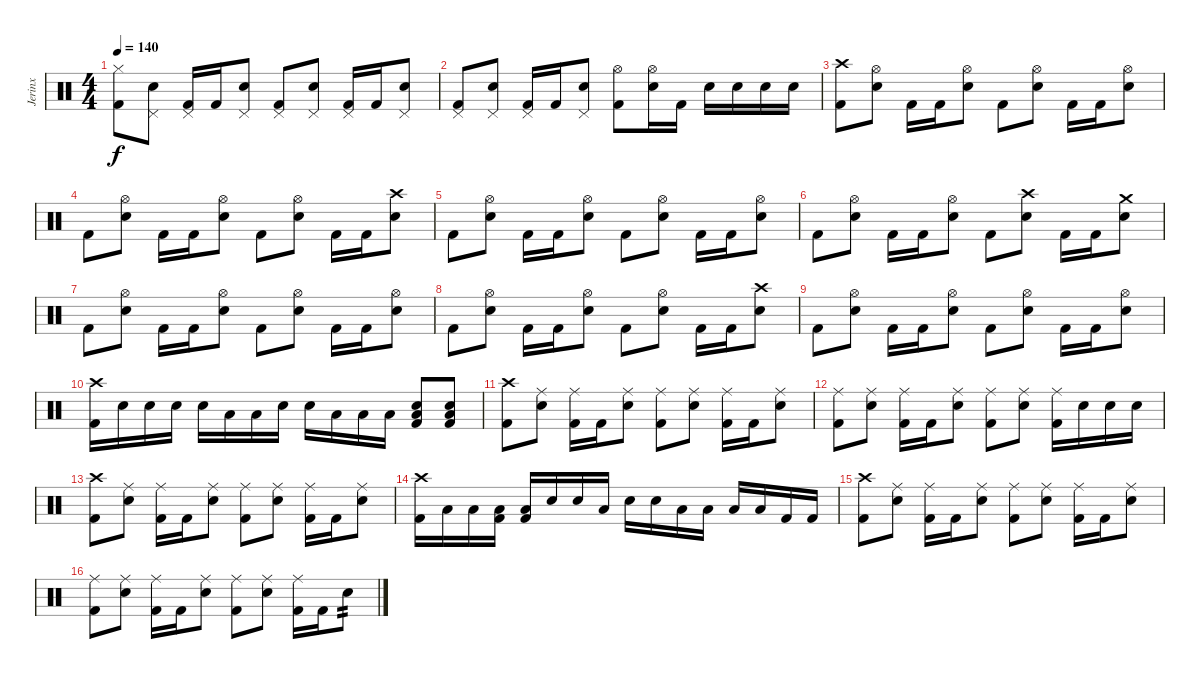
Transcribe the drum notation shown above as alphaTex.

\track ("Jerinx" "Jerinx") {instrument percussion}
\staff {score}
\articulation defaults
\ts (4 4)
\tempo 140
\clef neutral
\ks c
("Hi-Hat (closed)" "Kick (hit) 2").8{dy f} ("Pedal Hi-Hat (hit)" "Electric Snare (hit)").8 ("Pedal Hi-Hat (hit)" "Kick (hit) 2").16 "Kick (hit) 2".16 ("Pedal Hi-Hat (hit)" "Electric Snare (hit)").8 ("Pedal Hi-Hat (hit)" "Kick (hit) 2").8 ("Pedal Hi-Hat (hit)" "Electric Snare (hit)").8 ("Pedal Hi-Hat (hit)" "Kick (hit) 2").16 "Kick (hit) 2".16 ("Pedal Hi-Hat (hit)" "Electric Snare (hit)").8 |
("Pedal Hi-Hat (hit)" "Kick (hit) 2").8 ("Pedal Hi-Hat (hit)" "Electric Snare (hit)").8 ("Pedal Hi-Hat (hit)" "Kick (hit) 2").16 "Kick (hit) 2".16 ("Pedal Hi-Hat (hit)" "Electric Snare (hit)").8 ("Hi-Hat (open)" "Kick (hit) 2").8 ("Hi-Hat (open)" "Electric Snare (hit)").16 "Kick (hit) 2".16 "Electric Snare (hit)".16 "Electric Snare (hit)".16 "Electric Snare (hit)".16 "Electric Snare (hit)".16 |
("Crash high (hit)" "Kick (hit) 2").8 ("Hi-Hat (open)" "Electric Snare (hit)").8 "Kick (hit) 2".16 "Kick (hit) 2".16 ("Hi-Hat (open)" "Electric Snare (hit)").8 "Kick (hit) 2".8 ("Hi-Hat (open)" "Electric Snare (hit)").8 "Kick (hit) 2".16 "Kick (hit) 2".16 ("Hi-Hat (open)" "Electric Snare (hit)").8 |
"Kick (hit) 2".8 ("Hi-Hat (open)" "Electric Snare (hit)").8 "Kick (hit) 2".16 "Kick (hit) 2".16 ("Hi-Hat (open)" "Electric Snare (hit)").8 "Kick (hit) 2".8 ("Hi-Hat (open)" "Electric Snare (hit)").8 "Kick (hit) 2".16 "Kick (hit) 2".16 ("Crash high (hit)" "Electric Snare (hit)").8 |
"Kick (hit) 2".8 ("Hi-Hat (open)" "Electric Snare (hit)").8 "Kick (hit) 2".16 "Kick (hit) 2".16 ("Hi-Hat (open)" "Electric Snare (hit)").8 "Kick (hit) 2".8 ("Hi-Hat (open)" "Electric Snare (hit)").8 "Kick (hit) 2".16 "Kick (hit) 2".16 ("Hi-Hat (open)" "Electric Snare (hit)").8 |
"Kick (hit) 2".8 ("Hi-Hat (open)" "Electric Snare (hit)").8 "Kick (hit) 2".16 "Kick (hit) 2".16 ("Hi-Hat (open)" "Electric Snare (hit)").8 "Kick (hit) 2".8 ("Crash high (hit)" "Electric Snare (hit)").8 "Kick (hit) 2".16 "Kick (hit) 2".16 ("Crash medium (hit)" "Electric Snare (hit)").8 |
"Kick (hit) 2".8 ("Hi-Hat (open)" "Electric Snare (hit)").8 "Kick (hit) 2".16 "Kick (hit) 2".16 ("Hi-Hat (open)" "Electric Snare (hit)").8 "Kick (hit) 2".8 ("Hi-Hat (open)" "Electric Snare (hit)").8 "Kick (hit) 2".16 "Kick (hit) 2".16 ("Hi-Hat (open)" "Electric Snare (hit)").8 |
"Kick (hit) 2".8 ("Hi-Hat (open)" "Electric Snare (hit)").8 "Kick (hit) 2".16 "Kick (hit) 2".16 ("Hi-Hat (open)" "Electric Snare (hit)").8 "Kick (hit) 2".8 ("Hi-Hat (open)" "Electric Snare (hit)").8 "Kick (hit) 2".16 "Kick (hit) 2".16 ("Crash high (hit)" "Electric Snare (hit)").8 |
"Kick (hit) 2".8 ("Hi-Hat (open)" "Electric Snare (hit)").8 "Kick (hit) 2".16 "Kick (hit) 2".16 ("Hi-Hat (open)" "Electric Snare (hit)").8 "Kick (hit) 2".8 ("Hi-Hat (open)" "Electric Snare (hit)").8 "Kick (hit) 2".16 "Kick (hit) 2".16 ("Hi-Hat (open)" "Electric Snare (hit)").8 |
("Crash high (hit)" "Kick (hit) 2").16 "Electric Snare (hit)".16 "Electric Snare (hit)".16 "Electric Snare (hit)".16 "Electric Snare (hit)".16 "Low Tom (hit)".16 "Low Tom (hit)".16 "Electric Snare (hit)".16 "Electric Snare (hit)".16 "Low Tom (hit)".16 "Low Tom (hit)".16 "Low Tom (hit)".16 ("Low Floor Tom (hit)" "Electric Snare (hit)" "Kick (hit) 2").8 ("Low Floor Tom (hit)" "Electric Snare (hit)" "Kick (hit) 2").8 |
("Crash high (hit)" "Kick (hit) 2").8 ("Ride (middle)" "Electric Snare (hit)").8 ("Ride (middle)" "Kick (hit) 2").16 "Kick (hit) 2".16 ("Ride (middle)" "Electric Snare (hit)").8 ("Ride (middle)" "Kick (hit) 2").8 ("Ride (middle)" "Electric Snare (hit)").8 ("Ride (middle)" "Kick (hit) 2").16 "Kick (hit) 2".16 ("Ride (middle)" "Electric Snare (hit)").8 |
("Ride (middle)" "Kick (hit) 2").8 ("Ride (middle)" "Electric Snare (hit)").8 ("Ride (middle)" "Kick (hit) 2").16 "Kick (hit) 2".16 ("Ride (middle)" "Electric Snare (hit)").8 ("Ride (middle)" "Kick (hit) 2").8 ("Ride (middle)" "Electric Snare (hit)").8 ("Ride (middle)" "Kick (hit) 2").16 "Electric Snare (hit)".16 "Electric Snare (hit)".16 "Electric Snare (hit)".16 |
("Crash high (hit)" "Kick (hit) 2").8 ("Ride (middle)" "Electric Snare (hit)").8 ("Ride (middle)" "Kick (hit) 2").16 "Kick (hit) 2".16 ("Ride (middle)" "Electric Snare (hit)").8 ("Ride (middle)" "Kick (hit) 2").8 ("Ride (middle)" "Electric Snare (hit)").8 ("Ride (middle)" "Kick (hit) 2").16 "Kick (hit) 2".16 ("Ride (middle)" "Electric Snare (hit)").8 |
("Crash high (hit)" "Kick (hit) 2").16 "Low Tom (hit)".16 "Low Tom (hit)".16 ("Low Floor Tom (hit)" "Kick (hit) 2").16 ("Low Floor Tom (hit)" "Kick (hit) 2").16 "Electric Snare (hit)".16 "Electric Snare (hit)".16 "Low Tom (hit)".16 "Electric Snare (hit)".16 "Electric Snare (hit)".16 "Low Tom (hit)".16 "Low Tom (hit)".16 "Low Floor Tom (hit)".16 "Low Floor Tom (hit)".16 "Kick (hit) 2".16 "Kick (hit) 2".16 |
("Crash high (hit)" "Kick (hit) 2").8 ("Ride (middle)" "Electric Snare (hit)").8 ("Ride (middle)" "Kick (hit) 2").16 "Kick (hit) 2".16 ("Ride (middle)" "Electric Snare (hit)").8 ("Ride (middle)" "Kick (hit) 2").8 ("Ride (middle)" "Electric Snare (hit)").8 ("Ride (middle)" "Kick (hit) 2").16 "Kick (hit) 2".16 ("Ride (middle)" "Electric Snare (hit)").8 |
("Ride (middle)" "Kick (hit) 2").8 ("Ride (middle)" "Electric Snare (hit)").8 ("Ride (middle)" "Kick (hit) 2").16 "Kick (hit) 2".16 ("Ride (middle)" "Electric Snare (hit)").8 ("Ride (middle)" "Kick (hit) 2").8 ("Ride (middle)" "Electric Snare (hit)").8 ("Ride (middle)" "Kick (hit) 2").16 "Kick (hit) 2".16 "Electric Snare (hit)".8{tp 2}
